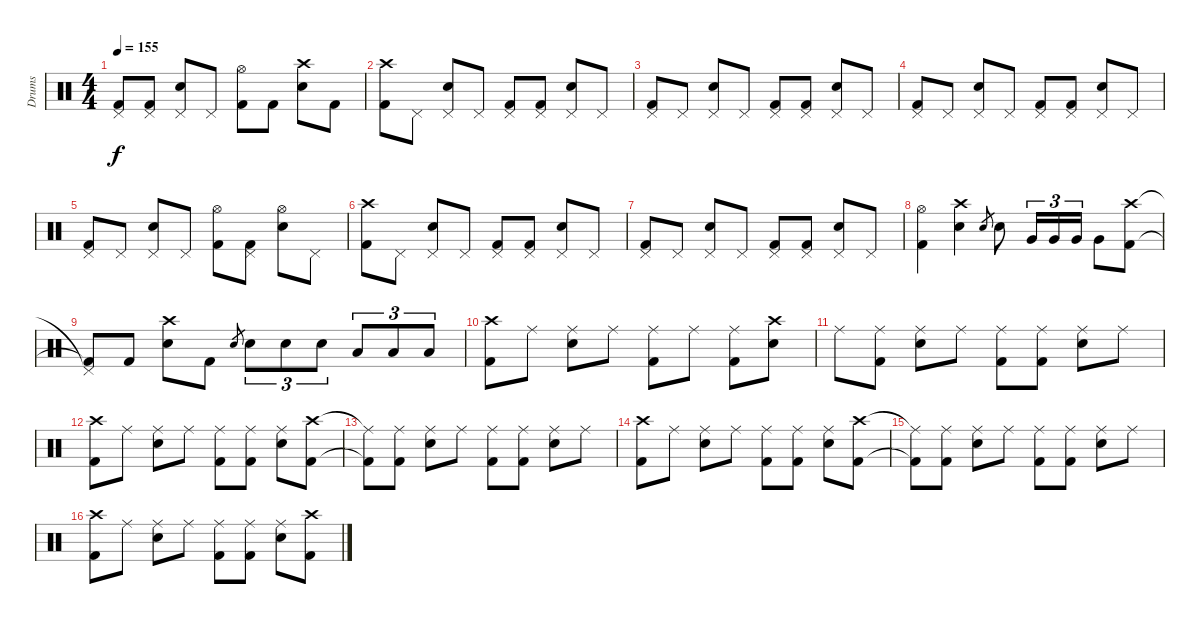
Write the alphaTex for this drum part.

\track ("Drums" "Drums") {instrument percussion}
\staff {score}
\articulation defaults
\ts (4 4)
\tempo 155
\clef neutral
\ks c
("Pedal Hi-Hat (hit)"{t} "Kick (hit) 2"{t}).8{dy f} ("Pedal Hi-Hat (hit)" "Kick (hit) 2").8 ("Pedal Hi-Hat (hit)" "Electric Snare (hit)").8 "Pedal Hi-Hat (hit)".8 ("Hi-Hat (open)" "Kick (hit) 2").8 "Kick (hit) 2".8 ("Crash high (hit)" "Electric Snare (hit)").8 "Kick (hit) 2".8 |
("Crash high (hit)" "Kick (hit) 2").8 "Pedal Hi-Hat (hit)".8 ("Pedal Hi-Hat (hit)" "Electric Snare (hit)").8 "Pedal Hi-Hat (hit)".8 ("Pedal Hi-Hat (hit)" "Kick (hit) 2").8 ("Pedal Hi-Hat (hit)" "Kick (hit) 2").8 ("Pedal Hi-Hat (hit)" "Electric Snare (hit)").8 "Pedal Hi-Hat (hit)".8 |
("Pedal Hi-Hat (hit)" "Kick (hit) 2").8 "Pedal Hi-Hat (hit)".8 ("Pedal Hi-Hat (hit)" "Electric Snare (hit)").8 "Pedal Hi-Hat (hit)".8 ("Pedal Hi-Hat (hit)" "Kick (hit) 2").8 ("Pedal Hi-Hat (hit)" "Kick (hit) 2").8 ("Pedal Hi-Hat (hit)" "Electric Snare (hit)").8 "Pedal Hi-Hat (hit)".8 |
("Pedal Hi-Hat (hit)" "Kick (hit) 2").8 "Pedal Hi-Hat (hit)".8 ("Pedal Hi-Hat (hit)" "Electric Snare (hit)").8 "Pedal Hi-Hat (hit)".8 ("Pedal Hi-Hat (hit)" "Kick (hit) 2").8 ("Pedal Hi-Hat (hit)" "Kick (hit) 2").8 ("Pedal Hi-Hat (hit)" "Electric Snare (hit)").8 "Pedal Hi-Hat (hit)".8 |
("Pedal Hi-Hat (hit)" "Kick (hit) 2").8 "Pedal Hi-Hat (hit)".8 ("Pedal Hi-Hat (hit)" "Electric Snare (hit)").8 "Pedal Hi-Hat (hit)".8 ("Hi-Hat (open)" "Kick (hit) 2").8 ("Pedal Hi-Hat (hit)" "Kick (hit) 2").8 ("Hi-Hat (open)" "Electric Snare (hit)").8 "Pedal Hi-Hat (hit)".8 |
("Crash high (hit)" "Kick (hit) 2").8 "Pedal Hi-Hat (hit)".8 ("Pedal Hi-Hat (hit)" "Electric Snare (hit)").8 "Pedal Hi-Hat (hit)".8 ("Pedal Hi-Hat (hit)" "Kick (hit) 2").8 ("Pedal Hi-Hat (hit)" "Kick (hit) 2").8 ("Pedal Hi-Hat (hit)" "Electric Snare (hit)").8 "Pedal Hi-Hat (hit)".8 |
("Pedal Hi-Hat (hit)" "Kick (hit) 2").8 "Pedal Hi-Hat (hit)".8 ("Pedal Hi-Hat (hit)" "Electric Snare (hit)").8 "Pedal Hi-Hat (hit)".8 ("Pedal Hi-Hat (hit)" "Kick (hit) 2").8 ("Pedal Hi-Hat (hit)" "Kick (hit) 2").8 ("Pedal Hi-Hat (hit)" "Electric Snare (hit)").8 "Pedal Hi-Hat (hit)".8 |
("Hi-Hat (open)" "Kick (hit) 2").4 ("Crash high (hit)" "Electric Snare (hit)").4 "Electric Snare (hit)".8{gr} "Electric Snare (hit)".8 "Very Low Tom (hit)".16{tu (3 2)} "Very Low Tom (hit)".16{tu (3 2)} "Very Low Tom (hit)".16{tu (3 2)} "Very Low Tom (hit)".8 ("Crash high (hit)" "Kick (hit) 2").8 |
("Pedal Hi-Hat (hit)"{t} "Kick (hit) 2"{t}).8 "Kick (hit) 2".8 ("Crash high (hit)" "Electric Snare (hit)").8 "Kick (hit) 2".8 "Electric Snare (hit)".8{gr} "Electric Snare (hit)".8{tu (3 2)} "Electric Snare (hit)".8{tu (3 2)} "Electric Snare (hit)".8{tu (3 2)} "Low Tom (hit)".8{tu (3 2)} "Low Tom (hit)".8{tu (3 2)} "Low Tom (hit)".8{tu (3 2)} |
("Crash high (hit)" "Kick (hit) 2").8 "Ride (middle)".8 ("Ride (middle)" "Electric Snare (hit)").8 "Ride (middle)".8 ("Ride (middle)" "Kick (hit) 2").8 "Ride (middle)".8 ("Ride (middle)" "Kick (hit) 2").8 ("Crash high (hit)" "Electric Snare (hit)").8 |
"Ride (middle)".8 ("Ride (middle)" "Kick (hit) 2").8 ("Ride (middle)" "Electric Snare (hit)").8 "Ride (middle)".8 ("Ride (middle)" "Kick (hit) 2").8 ("Ride (middle)" "Kick (hit) 2").8 ("Ride (middle)" "Electric Snare (hit)").8 "Ride (middle)".8 |
("Crash high (hit)" "Kick (hit) 2").8 "Ride (middle)".8 ("Ride (middle)" "Electric Snare (hit)").8 "Ride (middle)".8 ("Ride (middle)" "Kick (hit) 2").8 ("Ride (middle)" "Kick (hit) 2").8 ("Ride (middle)" "Electric Snare (hit)").8 ("Crash high (hit)" "Kick (hit) 2").8 |
("Ride (middle)"{t} "Kick (hit) 2"{t}).8 ("Ride (middle)" "Kick (hit) 2").8 ("Ride (middle)" "Electric Snare (hit)").8 "Ride (middle)".8 ("Ride (middle)" "Kick (hit) 2").8 ("Ride (middle)" "Kick (hit) 2").8 ("Ride (middle)" "Electric Snare (hit)").8 "Ride (middle)".8 |
("Crash high (hit)" "Kick (hit) 2").8 "Ride (middle)".8 ("Ride (middle)" "Electric Snare (hit)").8 "Ride (middle)".8 ("Ride (middle)" "Kick (hit) 2").8 ("Ride (middle)" "Kick (hit) 2").8 ("Ride (middle)" "Electric Snare (hit)").8 ("Crash high (hit)" "Kick (hit) 2").8 |
("Ride (middle)"{t} "Kick (hit) 2"{t}).8 ("Ride (middle)" "Kick (hit) 2").8 ("Ride (middle)" "Electric Snare (hit)").8 "Ride (middle)".8 ("Ride (middle)" "Kick (hit) 2").8 ("Ride (middle)" "Kick (hit) 2").8 ("Ride (middle)" "Electric Snare (hit)").8 "Ride (middle)".8 |
("Crash high (hit)" "Kick (hit) 2").8 "Ride (middle)".8 ("Ride (middle)" "Electric Snare (hit)").8 "Ride (middle)".8 ("Ride (middle)" "Kick (hit) 2").8 ("Ride (middle)" "Kick (hit) 2").8 ("Ride (middle)" "Electric Snare (hit)").8 ("Crash high (hit)" "Kick (hit) 2").8
